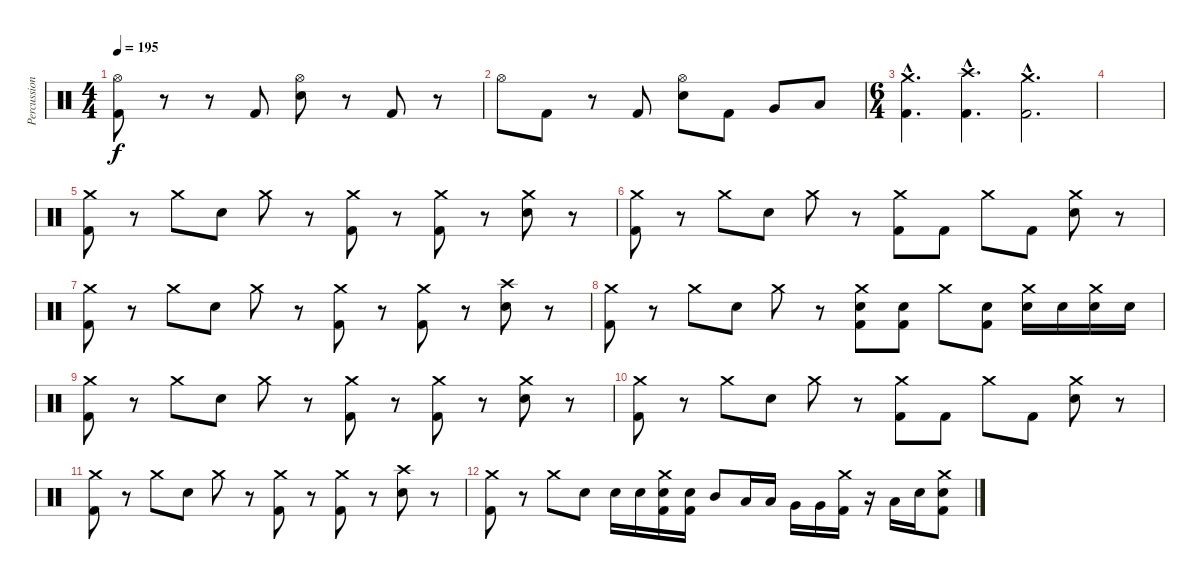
\track ("Percussion" "Percussion") {instrument percussion}
\staff {score}
\articulation defaults
\ts (4 4)
\tempo 195
\clef neutral
\ks c
("Hi-Hat (open)" "Kick (hit) 2").8{dy f} r.8 r.8 "Kick (hit) 2".8 ("Hi-Hat (open)" "Electric Snare (hit)").8 r.8 "Kick (hit) 2".8 r.8 |
"Hi-Hat (open)".8 "Kick (hit) 2".8 r.8 "Kick (hit) 2".8 ("Hi-Hat (open)" "Electric Snare (hit)").8 "Kick (hit) 2".8 "Very Low Tom (hit)".8 "Low Floor Tom (hit)".8 |
\ts (6 4)
("Crash medium (hit)"{hac} "Kick (hit) 2"{hac}).4{d} ("Crash high (hit)"{hac} "Kick (hit) 2"{hac}).4{d} ("Crash medium (hit)"{hac} "Kick (hit) 2"{hac}).2{d} |
|
("Crash medium (hit)" "Kick (hit) 2").8 r.8 "Crash medium (hit)".8 "Electric Snare (hit)".8 "Crash medium (hit)".8 r.8 ("Crash medium (hit)" "Kick (hit) 2").8 r.8 ("Crash medium (hit)" "Kick (hit) 2").8 r.8 ("Crash medium (hit)" "Electric Snare (hit)").8 r.8 |
("Crash medium (hit)" "Kick (hit) 2").8 r.8 "Crash medium (hit)".8 "Electric Snare (hit)".8 "Crash medium (hit)".8 r.8 ("Crash medium (hit)" "Kick (hit) 2").8 "Kick (hit) 2".8 "Crash medium (hit)".8 "Kick (hit) 2".8 ("Crash medium (hit)" "Electric Snare (hit)").8 r.8 |
("Crash medium (hit)" "Kick (hit) 2").8 r.8 "Crash medium (hit)".8 "Electric Snare (hit)".8 "Crash medium (hit)".8 r.8 ("Crash medium (hit)" "Kick (hit) 2").8 r.8 ("Crash medium (hit)" "Kick (hit) 2").8 r.8 ("Crash high (hit)" "Electric Snare (hit)").8 r.8 |
("Crash medium (hit)" "Kick (hit) 2").8 r.8 "Crash medium (hit)".8 "Electric Snare (hit)".8 "Crash medium (hit)".8 r.8 ("Crash medium (hit)" "Electric Snare (hit)" "Kick (hit) 2").8 ("Electric Snare (hit)" "Kick (hit) 2").8 "Crash medium (hit)".8 ("Electric Snare (hit)" "Kick (hit) 2").8 ("Crash medium (hit)" "Electric Snare (hit)").16 "Electric Snare (hit)".16 ("Crash medium (hit)" "Electric Snare (hit)").16 "Electric Snare (hit)".16 |
("Crash medium (hit)" "Kick (hit) 2").8 r.8 "Crash medium (hit)".8 "Electric Snare (hit)".8 "Crash medium (hit)".8 r.8 ("Crash medium (hit)" "Kick (hit) 2").8 r.8 ("Crash medium (hit)" "Kick (hit) 2").8 r.8 ("Crash medium (hit)" "Electric Snare (hit)").8 r.8 |
("Crash medium (hit)" "Kick (hit) 2").8 r.8 "Crash medium (hit)".8 "Electric Snare (hit)".8 "Crash medium (hit)".8 r.8 ("Crash medium (hit)" "Kick (hit) 2").8 "Kick (hit) 2".8 "Crash medium (hit)".8 "Kick (hit) 2".8 ("Crash medium (hit)" "Electric Snare (hit)").8 r.8 |
("Crash medium (hit)" "Kick (hit) 2").8 r.8 "Crash medium (hit)".8 "Electric Snare (hit)".8 "Crash medium (hit)".8 r.8 ("Crash medium (hit)" "Kick (hit) 2").8 r.8 ("Crash medium (hit)" "Kick (hit) 2").8 r.8 ("Crash high (hit)" "Electric Snare (hit)").8 r.8 |
("Crash medium (hit)" "Kick (hit) 2").8 r.8 "Crash medium (hit)".8 "Electric Snare (hit)".8 "Electric Snare (hit)".16 "Electric Snare (hit)".16 ("Crash medium (hit)" "Electric Snare (hit)" "Kick (hit) 2").16 ("Electric Snare (hit)" "Kick (hit) 2").16 "Mid Tom (hit)".8 "Low Tom (hit)".16 "Low Tom (hit)".16 "Very Low Tom (hit)".16 "Very Low Tom (hit)".16 ("Crash medium (hit)" "Kick (hit) 2").16 r.16 "Low Floor Tom (hit)".16 "Electric Snare (hit)".16 ("Crash medium (hit)" "Electric Snare (hit)" "Kick (hit) 2").8
